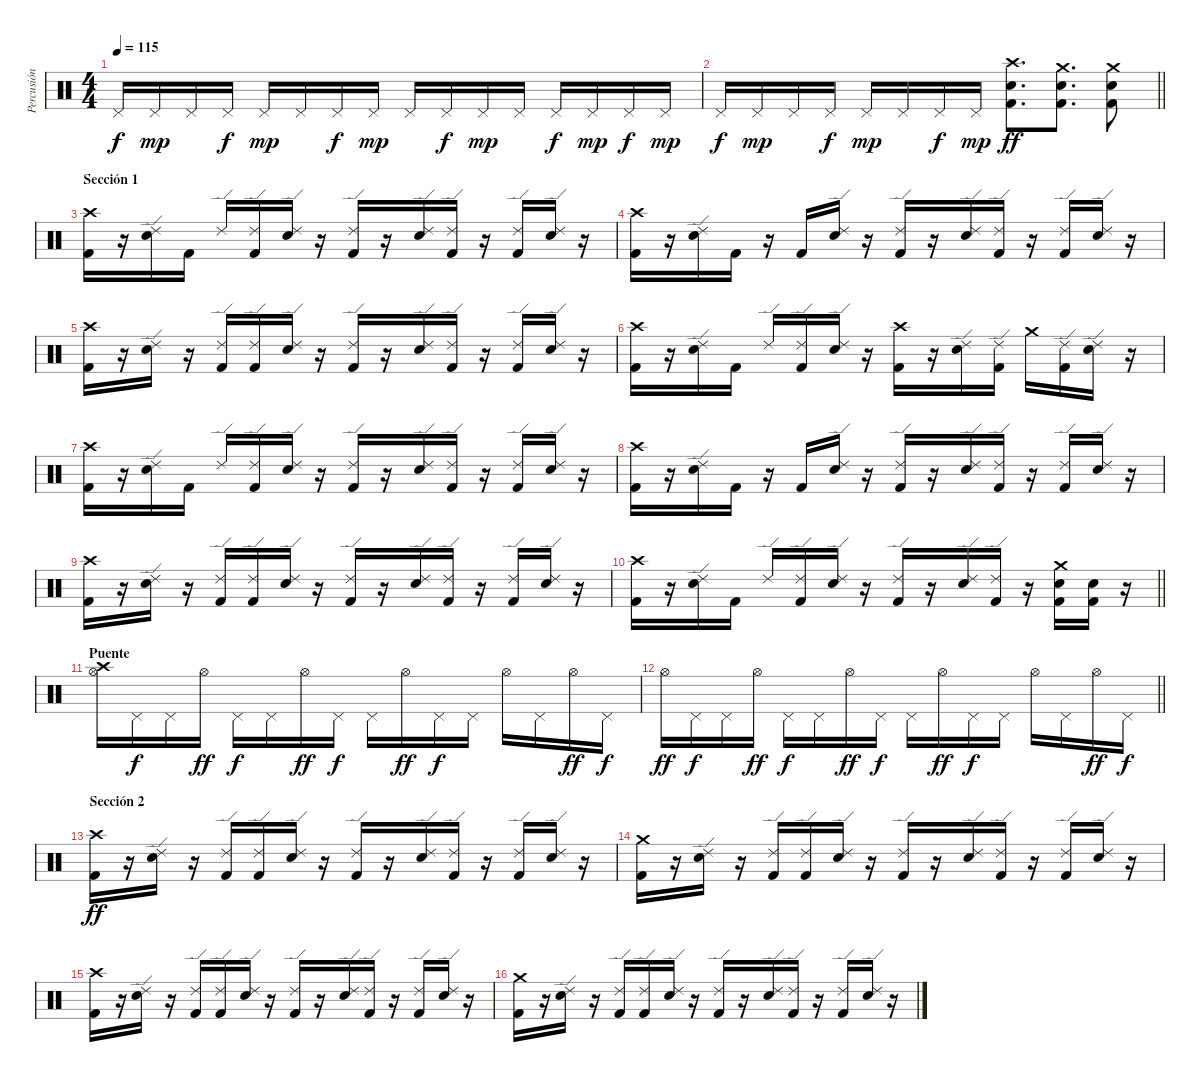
\track ("Percusión" "Percusión") {instrument percussion}
\staff {score}
\articulation defaults
\ts (4 4)
\tempo 115
\clef neutral
\ks c "Pedal Hi-Hat (hit)".16{dy f} "Pedal Hi-Hat (hit)".16{dy mp} "Pedal Hi-Hat (hit)".16 "Pedal Hi-Hat (hit)".16{dy f} "Pedal Hi-Hat (hit)".16{dy mp} "Pedal Hi-Hat (hit)".16 "Pedal Hi-Hat (hit)".16{dy f} "Pedal Hi-Hat (hit)".16{dy mp} "Pedal Hi-Hat (hit)".16 "Pedal Hi-Hat (hit)".16{dy f} "Pedal Hi-Hat (hit)".16{dy mp} "Pedal Hi-Hat (hit)".16 "Pedal Hi-Hat (hit)".16{dy f} "Pedal Hi-Hat (hit)".16{dy mp} "Pedal Hi-Hat (hit)".16{dy f} "Pedal Hi-Hat (hit)".16{dy mp}
|
\barLineRight lightlight "Pedal Hi-Hat (hit)".16{dy f} "Pedal Hi-Hat (hit)".16{dy mp} "Pedal Hi-Hat (hit)".16 "Pedal Hi-Hat (hit)".16{dy f} "Pedal Hi-Hat (hit)".16{dy mp} "Pedal Hi-Hat (hit)".16 "Pedal Hi-Hat (hit)".16{dy f} "Pedal Hi-Hat (hit)".16{dy mp}
("Crash high (hit)" "Snare (hit) 2" "Kick (hit) 2").8{d dy ff} ("Crash medium (hit)" "Snare (hit) 2" "Kick (hit) 2").8{d} ("Crash medium (hit)" "Snare (hit) 2" "Kick (hit) 2").8 |
\section ("" "Sección 1")
("Crash high (hit)" "Kick (hit) 2").16 r.16 ("Ride (edge) 2" "Snare (hit) 2").16 "Kick (hit) 2".16 "Ride (edge) 2".16 ("Ride (edge) 2" "Kick (hit) 2").16 ("Ride (edge) 2" "Snare (hit) 2").16 r.16 ("Ride (edge) 2" "Kick (hit) 2").16 r.16 ("Ride (edge) 2" "Snare (hit) 2").16 ("Ride (edge) 2" "Kick (hit) 2").16 r.16 ("Ride (edge) 2" "Kick (hit) 2").16 ("Ride (edge) 2" "Snare (hit) 2").16 r.16 |
("Crash high (hit)" "Kick (hit) 2").16 r.16 ("Ride (edge) 2" "Snare (hit) 2").16 "Kick (hit) 2".16 r.16 "Kick (hit) 2".16 ("Ride (edge) 2" "Snare (hit) 2").16 r.16 ("Ride (edge) 2" "Kick (hit) 2").16 r.16 ("Ride (edge) 2" "Snare (hit) 2").16 ("Ride (edge) 2" "Kick (hit) 2").16 r.16 ("Ride (edge) 2" "Kick (hit) 2").16 ("Ride (edge) 2" "Snare (hit) 2").16 r.16 |
("Crash high (hit)" "Kick (hit) 2").16 r.16 ("Ride (edge) 2" "Snare (hit) 2").16 r.16 ("Ride (edge) 2" "Kick (hit) 2").16 ("Ride (edge) 2" "Kick (hit) 2").16 ("Ride (edge) 2" "Snare (hit) 2").16 r.16 ("Ride (edge) 2" "Kick (hit) 2").16 r.16 ("Ride (edge) 2" "Snare (hit) 2").16 ("Ride (edge) 2" "Kick (hit) 2").16 r.16 ("Ride (edge) 2" "Kick (hit) 2").16 ("Ride (edge) 2" "Snare (hit) 2").16 r.16 |
("Crash high (hit)" "Kick (hit) 2").16 r.16 ("Ride (edge) 2" "Snare (hit) 2").16 "Kick (hit) 2".16 "Ride (edge) 2".16 ("Ride (edge) 2" "Kick (hit) 2").16 ("Ride (edge) 2" "Snare (hit) 2").16 r.16 ("Crash high (hit)" "Kick (hit) 2").16 r.16 ("Ride (edge) 2" "Snare (hit) 2").16 ("Ride (edge) 2" "Kick (hit) 2").16 "Crash medium (hit)".16 ("Ride (edge) 2" "Kick (hit) 2").16 ("Ride (edge) 2" "Snare (hit) 2").16 r.16 |
("Crash high (hit)" "Kick (hit) 2").16 r.16 ("Ride (edge) 2" "Snare (hit) 2").16 "Kick (hit) 2".16 "Ride (edge) 2".16 ("Ride (edge) 2" "Kick (hit) 2").16 ("Ride (edge) 2" "Snare (hit) 2").16 r.16 ("Ride (edge) 2" "Kick (hit) 2").16 r.16 ("Ride (edge) 2" "Snare (hit) 2").16 ("Ride (edge) 2" "Kick (hit) 2").16 r.16 ("Ride (edge) 2" "Kick (hit) 2").16 ("Ride (edge) 2" "Snare (hit) 2").16 r.16 |
("Crash high (hit)" "Kick (hit) 2").16 r.16 ("Ride (edge) 2" "Snare (hit) 2").16 "Kick (hit) 2".16 r.16 "Kick (hit) 2".16 ("Ride (edge) 2" "Snare (hit) 2").16 r.16 ("Ride (edge) 2" "Kick (hit) 2").16 r.16 ("Ride (edge) 2" "Snare (hit) 2").16 ("Ride (edge) 2" "Kick (hit) 2").16 r.16 ("Ride (edge) 2" "Kick (hit) 2").16 ("Ride (edge) 2" "Snare (hit) 2").16 r.16 |
("Crash high (hit)" "Kick (hit) 2").16 r.16 ("Ride (edge) 2" "Snare (hit) 2").16 r.16 ("Ride (edge) 2" "Kick (hit) 2").16 ("Ride (edge) 2" "Kick (hit) 2").16 ("Ride (edge) 2" "Snare (hit) 2").16 r.16 ("Ride (edge) 2" "Kick (hit) 2").16 r.16 ("Ride (edge) 2" "Snare (hit) 2").16 ("Ride (edge) 2" "Kick (hit) 2").16 r.16 ("Ride (edge) 2" "Kick (hit) 2").16 ("Ride (edge) 2" "Snare (hit) 2").16 r.16 |
\barLineRight lightlight
("Crash high (hit)" "Kick (hit) 2").16 r.16 ("Ride (edge) 2" "Snare (hit) 2").16 "Kick (hit) 2".16 "Ride (edge) 2".16 ("Ride (edge) 2" "Kick (hit) 2").16 ("Ride (edge) 2" "Snare (hit) 2").16 r.16 ("Ride (edge) 2" "Kick (hit) 2").16 r.16 ("Ride (edge) 2" "Snare (hit) 2").16 ("Ride (edge) 2" "Kick (hit) 2").16 r.16 ("Crash medium (hit)" "Snare (hit) 2" "Kick (hit) 2").16 ("Snare (hit) 2" "Kick (hit) 2").16 r.16 |
\section ("" "Puente")
("Crash high (hit)" "Hi-Hat (open)").16 "Pedal Hi-Hat (hit)".16{dy f} "Pedal Hi-Hat (hit)".16 "Hi-Hat (open)".16{dy ff} "Pedal Hi-Hat (hit)".16{dy f} "Pedal Hi-Hat (hit)".16 "Hi-Hat (open)".16{dy ff} "Pedal Hi-Hat (hit)".16{dy f} "Pedal Hi-Hat (hit)".16 "Hi-Hat (open)".16{dy ff} "Pedal Hi-Hat (hit)".16{dy f} "Pedal Hi-Hat (hit)".16 "Hi-Hat (open)".16 "Pedal Hi-Hat (hit)".16 "Hi-Hat (open)".16{dy ff} "Pedal Hi-Hat (hit)".16{dy f} |
\barLineRight lightlight "Hi-Hat (open)".16{dy ff} "Pedal Hi-Hat (hit)".16{dy f} "Pedal Hi-Hat (hit)".16 "Hi-Hat (open)".16{dy ff} "Pedal Hi-Hat (hit)".16{dy f} "Pedal Hi-Hat (hit)".16 "Hi-Hat (open)".16{dy ff} "Pedal Hi-Hat (hit)".16{dy f} "Pedal Hi-Hat (hit)".16 "Hi-Hat (open)".16{dy ff} "Pedal Hi-Hat (hit)".16{dy f} "Pedal Hi-Hat (hit)".16 "Hi-Hat (open)".16 "Pedal Hi-Hat (hit)".16 "Hi-Hat (open)".16{dy ff} "Pedal Hi-Hat (hit)".16{dy f}
|
\section ("" "Sección 2")
("Crash high (hit)" "Kick (hit) 2").16{dy ff} r.16 ("Ride (edge) 2" "Snare (hit) 2").16 r.16 ("Ride (edge) 2" "Kick (hit) 2").16 ("Ride (edge) 2" "Kick (hit) 2").16 ("Ride (edge) 2" "Snare (hit) 2").16 r.16 ("Ride (edge) 2" "Kick (hit) 2").16 r.16 ("Ride (edge) 2" "Snare (hit) 2").16 ("Ride (edge) 2" "Kick (hit) 2").16 r.16 ("Ride (edge) 2" "Kick (hit) 2").16 ("Ride (edge) 2" "Snare (hit) 2").16 r.16 |
("Crash medium (hit)" "Kick (hit) 2").16 r.16 ("Ride (edge) 2" "Snare (hit) 2").16 r.16 ("Ride (edge) 2" "Kick (hit) 2").16 ("Ride (edge) 2" "Kick (hit) 2").16 ("Ride (edge) 2" "Snare (hit) 2").16 r.16 ("Ride (edge) 2" "Kick (hit) 2").16 r.16 ("Ride (edge) 2" "Snare (hit) 2").16 ("Ride (edge) 2" "Kick (hit) 2").16 r.16 ("Ride (edge) 2" "Kick (hit) 2").16 ("Ride (edge) 2" "Snare (hit) 2").16 r.16 |
("Crash high (hit)" "Kick (hit) 2").16 r.16 ("Ride (edge) 2" "Snare (hit) 2").16 r.16 ("Ride (edge) 2" "Kick (hit) 2").16 ("Ride (edge) 2" "Kick (hit) 2").16 ("Ride (edge) 2" "Snare (hit) 2").16 r.16 ("Ride (edge) 2" "Kick (hit) 2").16 r.16 ("Ride (edge) 2" "Snare (hit) 2").16 ("Ride (edge) 2" "Kick (hit) 2").16 r.16 ("Ride (edge) 2" "Kick (hit) 2").16 ("Ride (edge) 2" "Snare (hit) 2").16 r.16 |
("Crash medium (hit)" "Kick (hit) 2").16 r.16 ("Ride (edge) 2" "Snare (hit) 2").16 r.16 ("Ride (edge) 2" "Kick (hit) 2").16 ("Ride (edge) 2" "Kick (hit) 2").16 ("Ride (edge) 2" "Snare (hit) 2").16 r.16 ("Ride (edge) 2" "Kick (hit) 2").16 r.16 ("Ride (edge) 2" "Snare (hit) 2").16 ("Ride (edge) 2" "Kick (hit) 2").16 r.16 ("Ride (edge) 2" "Kick (hit) 2").16 ("Ride (edge) 2" "Snare (hit) 2").16 r.16
